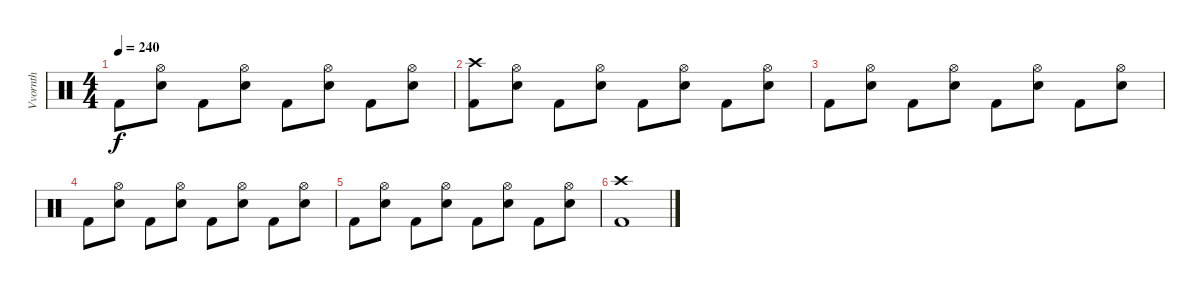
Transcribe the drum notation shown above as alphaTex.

\track ("Vvornth" "Vvornth") {instrument percussion}
\staff {score}
\articulation defaults
\ts (4 4)
\tempo 240
\clef neutral
\ks c "Kick (hit) 2".8{dy f}
("Hi-Hat (open)" "Snare (hit) 2").8 "Kick (hit) 2".8 ("Hi-Hat (open)" "Snare (hit) 2").8 "Kick (hit) 2".8 ("Hi-Hat (open)" "Snare (hit) 2").8 "Kick (hit) 2".8 ("Hi-Hat (open)" "Snare (hit) 2").8 |
("Crash high (hit)" "Kick (hit) 2").8 ("Hi-Hat (open)" "Snare (hit) 2").8 "Kick (hit) 2".8 ("Hi-Hat (open)" "Snare (hit) 2").8 "Kick (hit) 2".8 ("Hi-Hat (open)" "Snare (hit) 2").8 "Kick (hit) 2".8 ("Hi-Hat (open)" "Snare (hit) 2").8 |
"Kick (hit) 2".8 ("Hi-Hat (open)" "Snare (hit) 2").8 "Kick (hit) 2".8 ("Hi-Hat (open)" "Snare (hit) 2").8 "Kick (hit) 2".8 ("Hi-Hat (open)" "Snare (hit) 2").8 "Kick (hit) 2".8 ("Hi-Hat (open)" "Snare (hit) 2").8 |
"Kick (hit) 2".8 ("Hi-Hat (open)" "Snare (hit) 2").8 "Kick (hit) 2".8 ("Hi-Hat (open)" "Snare (hit) 2").8 "Kick (hit) 2".8 ("Hi-Hat (open)" "Snare (hit) 2").8 "Kick (hit) 2".8 ("Hi-Hat (open)" "Snare (hit) 2").8 |
"Kick (hit) 2".8 ("Hi-Hat (open)" "Snare (hit) 2").8 "Kick (hit) 2".8 ("Hi-Hat (open)" "Snare (hit) 2").8 "Kick (hit) 2".8 ("Hi-Hat (open)" "Snare (hit) 2").8 "Kick (hit) 2".8 ("Hi-Hat (open)" "Snare (hit) 2").8 |
("Crash high (hit)" "Kick (hit) 2").1
